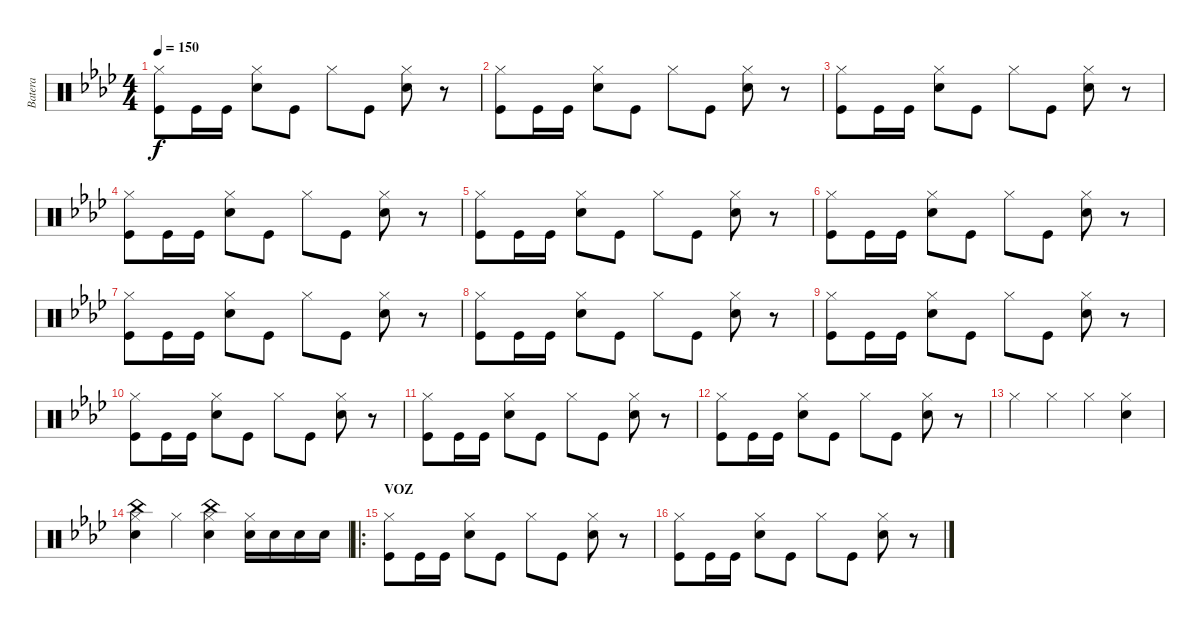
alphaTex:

\track ("Batera" "Batera") {instrument percussion}
\staff {score}
\articulation defaults
\ts (4 4)
\tempo 150
\clef neutral
\ks fminor
("Hi-Hat (closed)" "Kick (hit)").8{dy f} "Kick (hit)".16 "Kick (hit)".16 ("Hi-Hat (closed)" "Snare (hit) 2").8 "Kick (hit)".8 "Hi-Hat (closed)".8 "Kick (hit)".8 ("Hi-Hat (closed)" "Snare (hit) 2").8 r.8 |
("Hi-Hat (closed)" "Kick (hit)").8 "Kick (hit)".16 "Kick (hit)".16 ("Hi-Hat (closed)" "Snare (hit) 2").8 "Kick (hit)".8 "Hi-Hat (closed)".8 "Kick (hit)".8 ("Hi-Hat (closed)" "Snare (hit) 2").8 r.8 |
("Hi-Hat (closed)" "Kick (hit)").8 "Kick (hit)".16 "Kick (hit)".16 ("Hi-Hat (closed)" "Snare (hit) 2").8 "Kick (hit)".8 "Hi-Hat (closed)".8 "Kick (hit)".8 ("Hi-Hat (closed)" "Snare (hit) 2").8 r.8 |
("Hi-Hat (closed)" "Kick (hit)").8 "Kick (hit)".16 "Kick (hit)".16 ("Hi-Hat (closed)" "Snare (hit) 2").8 "Kick (hit)".8 "Hi-Hat (closed)".8 "Kick (hit)".8 ("Hi-Hat (closed)" "Snare (hit) 2").8 r.8 |
("Hi-Hat (closed)" "Kick (hit)").8 "Kick (hit)".16 "Kick (hit)".16 ("Hi-Hat (closed)" "Snare (hit) 2").8 "Kick (hit)".8 "Hi-Hat (closed)".8 "Kick (hit)".8 ("Hi-Hat (closed)" "Snare (hit) 2").8 r.8 |
("Hi-Hat (closed)" "Kick (hit)").8 "Kick (hit)".16 "Kick (hit)".16 ("Hi-Hat (closed)" "Snare (hit) 2").8 "Kick (hit)".8 "Hi-Hat (closed)".8 "Kick (hit)".8 ("Hi-Hat (closed)" "Snare (hit) 2").8 r.8 |
("Hi-Hat (closed)" "Kick (hit)").8 "Kick (hit)".16 "Kick (hit)".16 ("Hi-Hat (closed)" "Snare (hit) 2").8 "Kick (hit)".8 "Hi-Hat (closed)".8 "Kick (hit)".8 ("Hi-Hat (closed)" "Snare (hit) 2").8 r.8 |
("Hi-Hat (closed)" "Kick (hit)").8 "Kick (hit)".16 "Kick (hit)".16 ("Hi-Hat (closed)" "Snare (hit) 2").8 "Kick (hit)".8 "Hi-Hat (closed)".8 "Kick (hit)".8 ("Hi-Hat (closed)" "Snare (hit) 2").8 r.8 |
("Hi-Hat (closed)" "Kick (hit)").8 "Kick (hit)".16 "Kick (hit)".16 ("Hi-Hat (closed)" "Snare (hit) 2").8 "Kick (hit)".8 "Hi-Hat (closed)".8 "Kick (hit)".8 ("Hi-Hat (closed)" "Snare (hit) 2").8 r.8 |
("Hi-Hat (closed)" "Kick (hit)").8 "Kick (hit)".16 "Kick (hit)".16 ("Hi-Hat (closed)" "Snare (hit) 2").8 "Kick (hit)".8 "Hi-Hat (closed)".8 "Kick (hit)".8 ("Hi-Hat (closed)" "Snare (hit) 2").8 r.8 |
("Hi-Hat (closed)" "Kick (hit)").8 "Kick (hit)".16 "Kick (hit)".16 ("Hi-Hat (closed)" "Snare (hit) 2").8 "Kick (hit)".8 "Hi-Hat (closed)".8 "Kick (hit)".8 ("Hi-Hat (closed)" "Snare (hit) 2").8 r.8 |
("Hi-Hat (closed)" "Kick (hit)").8 "Kick (hit)".16 "Kick (hit)".16 ("Hi-Hat (closed)" "Snare (hit) 2").8 "Kick (hit)".8 "Hi-Hat (closed)".8 "Kick (hit)".8 ("Hi-Hat (closed)" "Snare (hit) 2").8 r.8 |
"Hi-Hat (closed)".4 "Hi-Hat (closed)".4 "Hi-Hat (closed)".4 ("Hi-Hat (closed)" "Snare (hit) 2").4 |
("Hi-Hat (closed)" "Snare (hit) 2" "China (hit)").4 "Hi-Hat (closed)".4 ("Hi-Hat (closed)" "Snare (hit) 2" "China (hit)").4 ("Hi-Hat (closed)" "Snare (hit) 2").16 "Snare (hit) 2".16 "Snare (hit) 2".16 "Snare (hit) 2".16 |
\ro
\section ("" "VOZ")
("Hi-Hat (closed)" "Kick (hit)").8 "Kick (hit)".16 "Kick (hit)".16 ("Hi-Hat (closed)" "Snare (hit) 2").8 "Kick (hit)".8 "Hi-Hat (closed)".8 "Kick (hit)".8 ("Hi-Hat (closed)" "Snare (hit) 2").8 r.8 |
("Hi-Hat (closed)" "Kick (hit)").8 "Kick (hit)".16 "Kick (hit)".16 ("Hi-Hat (closed)" "Snare (hit) 2").8 "Kick (hit)".8 "Hi-Hat (closed)".8 "Kick (hit)".8 ("Hi-Hat (closed)" "Snare (hit) 2").8 r.8
